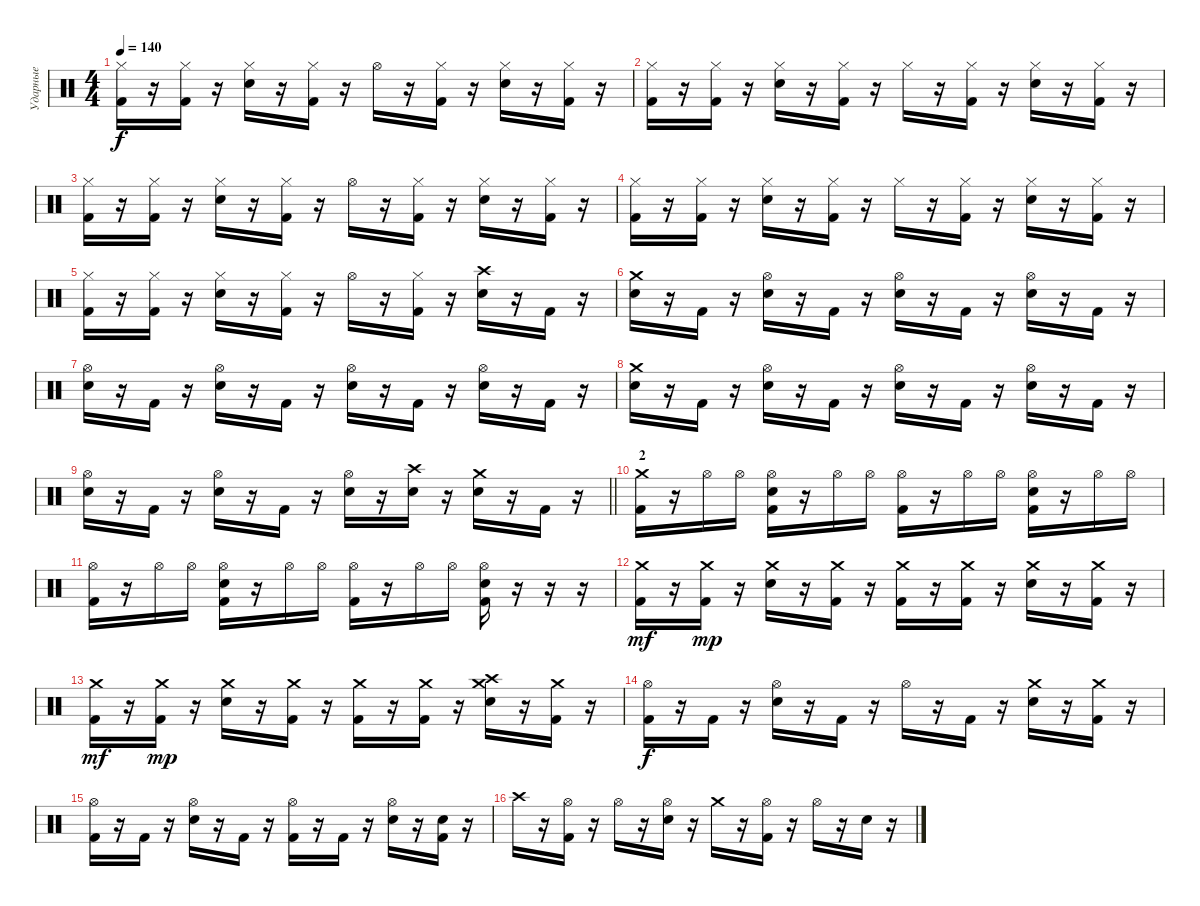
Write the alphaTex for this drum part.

\track ("Ударные" "Ударные") {instrument percussion}
\staff {score}
\articulation defaults
\ts (4 4)
\tempo 140
\clef neutral
\ks c
("Hi-Hat (closed)" "Kick (hit) 2").16{dy f} r.16 ("Hi-Hat (closed)" "Kick (hit) 2").16 r.16 ("Hi-Hat (closed)" "Electric Snare (hit)").16 r.16 ("Hi-Hat (closed)" "Kick (hit) 2").16 r.16 "Hi-Hat (open)".16 r.16 ("Hi-Hat (closed)" "Kick (hit) 2").16 r.16 ("Hi-Hat (closed)" "Electric Snare (hit)").16 r.16 ("Hi-Hat (closed)" "Kick (hit) 2").16 r.16 |
("Hi-Hat (closed)" "Kick (hit) 2").16 r.16 ("Hi-Hat (closed)" "Kick (hit) 2").16 r.16 ("Hi-Hat (closed)" "Electric Snare (hit)").16 r.16 ("Hi-Hat (closed)" "Kick (hit) 2").16 r.16 "Hi-Hat (closed)".16 r.16 ("Hi-Hat (closed)" "Kick (hit) 2").16 r.16 ("Hi-Hat (closed)" "Electric Snare (hit)").16 r.16 ("Hi-Hat (closed)" "Kick (hit) 2").16 r.16 |
("Hi-Hat (closed)" "Kick (hit) 2").16 r.16 ("Hi-Hat (closed)" "Kick (hit) 2").16 r.16 ("Hi-Hat (closed)" "Electric Snare (hit)").16 r.16 ("Hi-Hat (closed)" "Kick (hit) 2").16 r.16 "Hi-Hat (open)".16 r.16 ("Hi-Hat (closed)" "Kick (hit) 2").16 r.16 ("Hi-Hat (closed)" "Electric Snare (hit)").16 r.16 ("Hi-Hat (closed)" "Kick (hit) 2").16 r.16 |
("Hi-Hat (closed)" "Kick (hit) 2").16 r.16 ("Hi-Hat (closed)" "Kick (hit) 2").16 r.16 ("Hi-Hat (closed)" "Electric Snare (hit)").16 r.16 ("Hi-Hat (closed)" "Kick (hit) 2").16 r.16 "Hi-Hat (closed)".16 r.16 ("Hi-Hat (closed)" "Kick (hit) 2").16 r.16 ("Hi-Hat (closed)" "Electric Snare (hit)").16 r.16 ("Hi-Hat (closed)" "Kick (hit) 2").16 r.16 |
("Hi-Hat (closed)" "Kick (hit) 2").16 r.16 ("Hi-Hat (closed)" "Kick (hit) 2").16 r.16 ("Hi-Hat (closed)" "Electric Snare (hit)").16 r.16 ("Hi-Hat (closed)" "Kick (hit) 2").16 r.16 "Hi-Hat (open)".16 r.16 ("Hi-Hat (closed)" "Kick (hit) 2").16 r.16 ("Crash high (hit)" "Electric Snare (hit)").16 r.16 "Kick (hit) 2".16 r.16 |
("Crash medium (hit)" "Electric Snare (hit)").16 r.16 "Kick (hit) 2".16 r.16 ("Hi-Hat (open)" "Electric Snare (hit)").16 r.16 "Kick (hit) 2".16 r.16 ("Hi-Hat (open)" "Electric Snare (hit)").16 r.16 "Kick (hit) 2".16 r.16 ("Hi-Hat (open)" "Electric Snare (hit)").16 r.16 "Kick (hit) 2".16 r.16 |
("Hi-Hat (open)" "Electric Snare (hit)").16 r.16 "Kick (hit) 2".16 r.16 ("Hi-Hat (open)" "Electric Snare (hit)").16 r.16 "Kick (hit) 2".16 r.16 ("Hi-Hat (open)" "Electric Snare (hit)").16 r.16 "Kick (hit) 2".16 r.16 ("Hi-Hat (open)" "Electric Snare (hit)").16 r.16 "Kick (hit) 2".16 r.16 |
("Crash medium (hit)" "Electric Snare (hit)").16 r.16 "Kick (hit) 2".16 r.16 ("Hi-Hat (open)" "Electric Snare (hit)").16 r.16 "Kick (hit) 2".16 r.16 ("Hi-Hat (open)" "Electric Snare (hit)").16 r.16 "Kick (hit) 2".16 r.16 ("Hi-Hat (open)" "Electric Snare (hit)").16 r.16 "Kick (hit) 2".16 r.16 |
\barLineRight lightlight
("Hi-Hat (open)" "Electric Snare (hit)").16 r.16 "Kick (hit) 2".16 r.16 ("Hi-Hat (open)" "Electric Snare (hit)").16 r.16 "Kick (hit) 2".16 r.16 ("Hi-Hat (open)" "Electric Snare (hit)").16 r.16 ("Crash high (hit)" "Electric Snare (hit)").16 r.16 ("Crash medium (hit)" "Electric Snare (hit)").16 r.16 "Kick (hit) 2".16 r.16 |
\section ("" " 2")
("Crash medium (hit)" "Kick (hit) 2").16 r.16 "Hi-Hat (open)".16 "Hi-Hat (open)".16 ("Hi-Hat (open)" "Electric Snare (hit)" "Kick (hit) 2").16 r.16 "Hi-Hat (open)".16 "Hi-Hat (open)".16 ("Hi-Hat (open)" "Kick (hit) 2").16 r.16 "Hi-Hat (open)".16 "Hi-Hat (open)".16 ("Hi-Hat (open)" "Electric Snare (hit)" "Kick (hit) 2").16 r.16 "Hi-Hat (open)".16 "Hi-Hat (open)".16 |
("Hi-Hat (open)" "Kick (hit) 2").16 r.16 "Hi-Hat (open)".16 "Hi-Hat (open)".16 ("Hi-Hat (open)" "Electric Snare (hit)" "Kick (hit) 2").16 r.16 "Hi-Hat (open)".16 "Hi-Hat (open)".16 ("Hi-Hat (open)" "Kick (hit) 2").16 r.16 "Hi-Hat (open)".16 "Hi-Hat (open)".16 ("Hi-Hat (open)" "Electric Snare (hit)" "Kick (hit) 2").16 r.16 r.16 r.16 |
("Crash medium (hit)" "Kick (hit) 2").16{dy mf} r.16 ("Crash medium (hit)" "Kick (hit) 2").16{dy mp} r.16 ("Crash medium (hit)" "Electric Snare (hit)").16 r.16 ("Crash medium (hit)" "Kick (hit) 2").16 r.16 ("Crash medium (hit)" "Kick (hit) 2").16 r.16 ("Crash medium (hit)" "Kick (hit) 2").16 r.16 ("Crash medium (hit)" "Electric Snare (hit)").16 r.16 ("Crash medium (hit)" "Kick (hit) 2").16 r.16 |
("Crash medium (hit)" "Kick (hit) 2").16{dy mf} r.16 ("Crash medium (hit)" "Kick (hit) 2").16{dy mp} r.16 ("Crash medium (hit)" "Electric Snare (hit)").16 r.16 ("Crash medium (hit)" "Kick (hit) 2").16 r.16 ("Crash medium (hit)" "Kick (hit) 2").16 r.16 ("Crash medium (hit)" "Kick (hit) 2").16 r.16 ("Crash medium (hit)" "Crash high (hit)" "Electric Snare (hit)").16 r.16 ("Crash medium (hit)" "Kick (hit) 2").16 r.16 |
("Hi-Hat (open)" "Kick (hit) 2").16{dy f} r.16 "Kick (hit) 2".16 r.16 ("Hi-Hat (open)" "Electric Snare (hit)").16 r.16 "Kick (hit) 2".16 r.16 "Hi-Hat (open)".16 r.16 "Kick (hit) 2".16 r.16 ("Crash medium (hit)" "Electric Snare (hit)").16 r.16 ("Crash medium (hit)" "Kick (hit) 2").16 r.16 |
("Hi-Hat (open)" "Kick (hit) 2").16 r.16 "Kick (hit) 2".16 r.16 ("Hi-Hat (open)" "Electric Snare (hit)").16 r.16 "Kick (hit) 2".16 r.16 ("Hi-Hat (open)" "Kick (hit) 2").16 r.16 "Kick (hit) 2".16 r.16 ("Hi-Hat (open)" "Electric Snare (hit)").16 r.16 ("Electric Snare (hit)" "Kick (hit) 2").16 r.16 |
"Crash high (hit)".16 r.16 ("Hi-Hat (open)" "Kick (hit) 2").16 r.16 "Hi-Hat (open)".16 r.16 ("Hi-Hat (open)" "Electric Snare (hit)").16 r.16 "Crash medium (hit)".16 r.16 ("Hi-Hat (open)" "Kick (hit) 2").16 r.16 "Hi-Hat (open)".16 r.16 "Electric Snare (hit)".16 r.16
